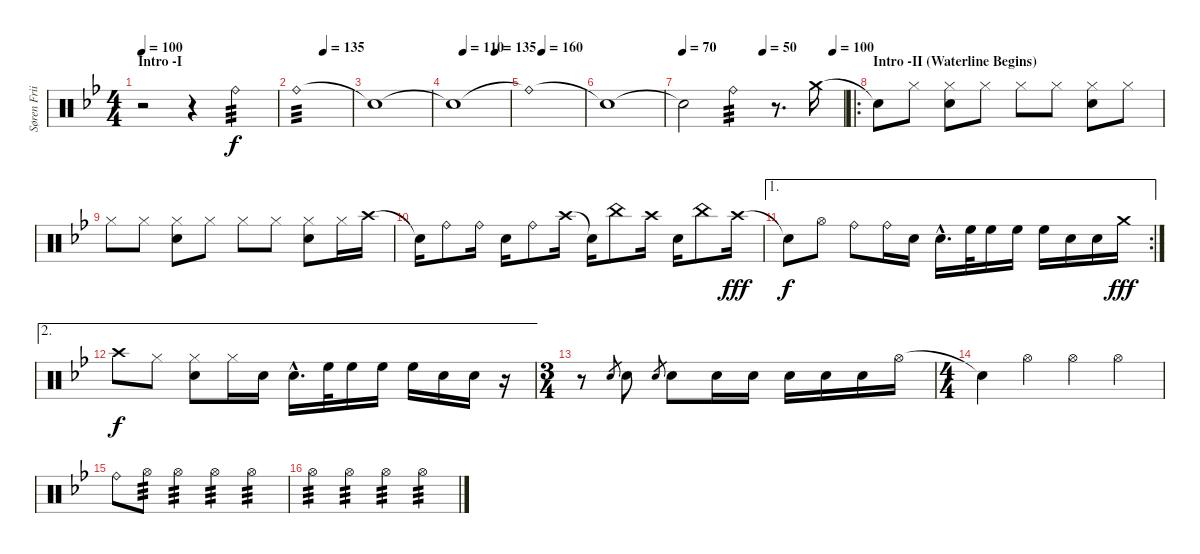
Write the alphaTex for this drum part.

\track ("Søren Friis (Drums)" "Søren Frii") {instrument percussion}
\staff {score}
\articulation defaults
\ts (4 4)
\section ("" "Intro -I")
\tempo 100
\clef neutral
\ks bb
r.2{dy f} r.4{volume 11} "Ride (bell)".4{tp 3} |
\tempo (135 0.5)
"Ride (bell)".1{tp 3} |
"Snare (hit)"{t}.1 |
\tempo (110 0.1875)
\tempo (135 0.75)
"Snare (hit)"{t}.1 |
\tempo (160 0.25)
"Ride (bell)"{t}.1 |
"Snare (hit)"{t}.1 |
\tempo 70
\tempo (50 0.5)
\tempo (100 0.9375)
"Snare (hit)"{t}.2 "Ride (bell)".4{tp 3} r.8{d} "Crash medium (hit)".16{volume 16} |
\ro
\section ("" "Intro -II (Waterline Begins)")
"Snare (hit)"{t}.8 "Hi-Hat (closed)".8 ("Hi-Hat (closed)" "Snare (hit) 2").8 "Hi-Hat (closed)".8 "Hi-Hat (closed)".8 "Hi-Hat (closed)".8 ("Hi-Hat (closed)" "Snare (hit) 2").8 "Hi-Hat (closed)".8 |
"Hi-Hat (closed)".8 "Hi-Hat (closed)".8 ("Hi-Hat (closed)" "Snare (hit) 2").8 "Hi-Hat (closed)".8 "Hi-Hat (closed)".8 "Hi-Hat (closed)".8 ("Hi-Hat (closed)" "Snare (hit) 2").8 "Hi-Hat (closed)".16 "Crash high (hit)".16 |
"Snare (hit)"{t}.16 "Ride (bell)".8 "Ride (bell)".16 "Snare (hit) 2".16 "Ride (bell)".8 "Crash high (hit)".16 "Snare (hit)"{t}.16 "China (hit)".8 "Crash high (hit)".16 "Snare (hit) 2".16 "China (hit)".8 "Crash high (hit)".16{dy fff} |
\ae 1
\rc 2 "Snare (hit)"{t}.8{dy f} "Hi-Hat (open)".8 "Ride (bell)".8 "Ride (bell)".16 "Snare (hit) 2".16 "Snare (hit) 2"{hac}.16{d} "High Floor Tom (hit)".32 "High Floor Tom (hit)".16 "High Floor Tom (hit)".16 "High Floor Tom (hit)".16 "Snare (hit) 2".16 "Snare (hit) 2".16 "Crash medium (hit)".16{dy fff}
|
\ae 2 "Crash high (hit)".8{dy f} "Hi-Hat (closed)".8
("Hi-Hat (closed)" "Snare (hit) 2").8 "Hi-Hat (closed)".16 "Snare (hit) 2".16 "Snare (hit) 2"{hac}.16{d} "High Floor Tom (hit)".32 "High Floor Tom (hit)".16 "High Floor Tom (hit)".16 "High Floor Tom (hit)".16 "Snare (hit) 2".16 "Snare (hit) 2".16 r.16 |
\ts (3 4)
r.8 "Snare (hit) 2".8{gr} "Snare (hit) 2".8 "Snare (hit) 2".8{gr} "Snare (hit) 2".8 "Snare (hit) 2".16 "Snare (hit) 2".16 "Snare (hit) 2".16 "Snare (hit) 2".16 "Snare (hit) 2".16 "Hi-Hat (open)".16 |
\ts (4 4)
"Snare (hit)"{t}.4 "Hi-Hat (open)".4 "Hi-Hat (open)".4 "Hi-Hat (open)".4 |
"Ride (bell)".8 "Hi-Hat (open)".8{tp 3} "Hi-Hat (open)".4{tp 3} "Hi-Hat (open)".4{tp 3} "Hi-Hat (open)".4{tp 3} |
"Hi-Hat (open)".4{tp 3} "Hi-Hat (open)".4{tp 3} "Hi-Hat (open)".4{tp 3} "Hi-Hat (open)".4{tp 3}
